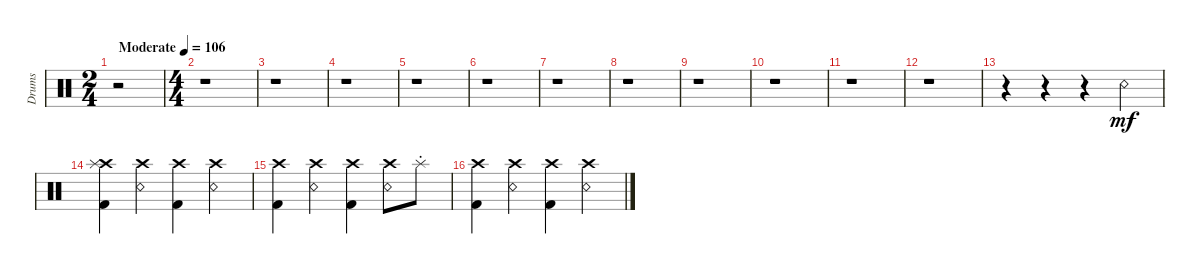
\track ("Drums" "Drums") {instrument percussion}
\staff {score}
\articulation defaults
\ts (2 4)
\tempo (106 "Moderate")
\clef neutral
\ks c
r.2{dy mf} |
\ts (4 4)
r.1 |
r.1 |
r.1 |
r.1 |
r.1 |
r.1 |
r.1 |
r.1 |
r.1 |
r.1 |
r.1 |
r.4 r.4 r.4 "Snare (rim shot)".4 |
("Crash high (hit)" "Splash (hit)" "Kick (hit) 2").4 ("Crash high (hit)" "Snare (rim shot)").4 ("Crash high (hit)" "Kick (hit) 2").4 ("Crash high (hit)" "Snare (rim shot)").4 |
("Crash high (hit)" "Kick (hit) 2").4 ("Crash high (hit)" "Snare (rim shot)").4 ("Crash high (hit)" "Kick (hit) 2").4 ("Crash high (hit)" "Snare (rim shot)").8 "Splash (choke)".8 |
("Crash high (hit)" "Kick (hit) 2").4 ("Crash high (hit)" "Snare (rim shot)").4 ("Crash high (hit)" "Kick (hit) 2").4 ("Crash high (hit)" "Snare (rim shot)").4
